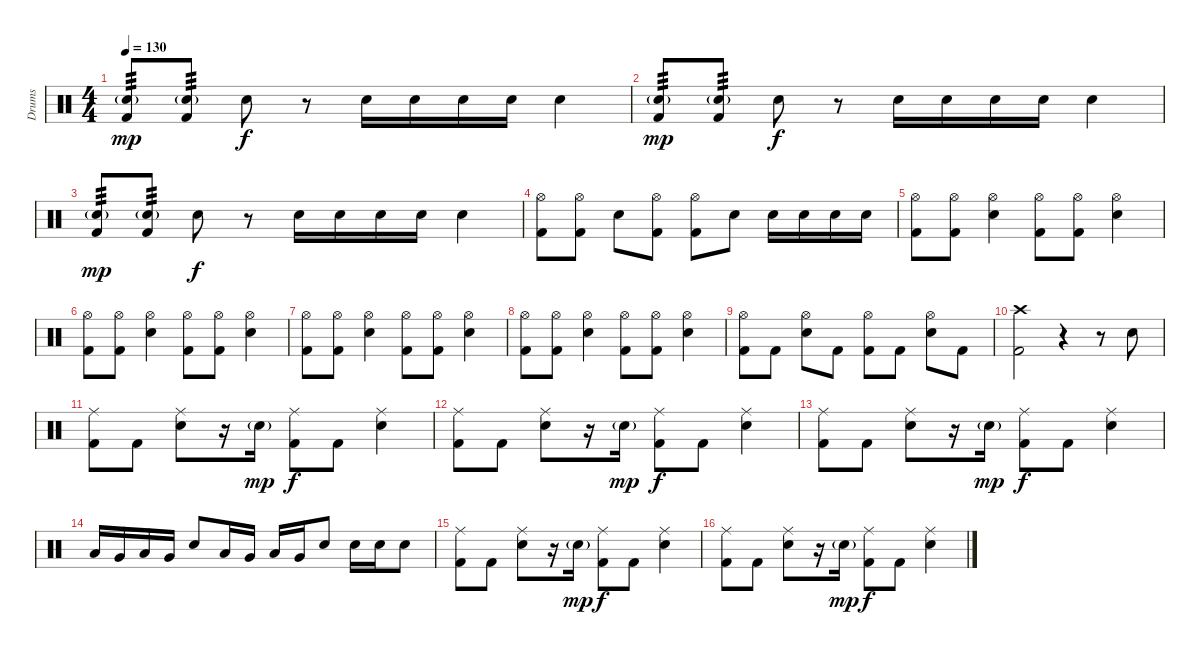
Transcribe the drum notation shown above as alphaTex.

\track ("Drums" "Drums") {instrument percussion}
\staff {score}
\articulation defaults
\ts (4 4)
\tempo 130
\clef neutral
\ks c
("Electric Snare (hit)"{g} "Kick (hit) 2").8{tp 3 dy mp} ("Electric Snare (hit)"{g} "Kick (hit) 2").8{tp 3} "Electric Snare (hit)".8{dy f} r.8 "Electric Snare (hit)".16 "Electric Snare (hit)".16 "Electric Snare (hit)".16 "Electric Snare (hit)".16 "Electric Snare (hit)".4 |
("Electric Snare (hit)"{g} "Kick (hit) 2").8{tp 3 dy mp} ("Electric Snare (hit)"{g} "Kick (hit) 2").8{tp 3} "Electric Snare (hit)".8{dy f} r.8 "Electric Snare (hit)".16 "Electric Snare (hit)".16 "Electric Snare (hit)".16 "Electric Snare (hit)".16 "Electric Snare (hit)".4 |
("Electric Snare (hit)"{g} "Kick (hit) 2").8{tp 3 dy mp} ("Electric Snare (hit)"{g} "Kick (hit) 2").8{tp 3} "Electric Snare (hit)".8{dy f} r.8 "Electric Snare (hit)".16 "Electric Snare (hit)".16 "Electric Snare (hit)".16 "Electric Snare (hit)".16 "Electric Snare (hit)".4 |
("Hi-Hat (open)" "Kick (hit) 2").8 ("Hi-Hat (open)" "Kick (hit) 2").8 "Electric Snare (hit)".8 ("Hi-Hat (open)" "Kick (hit) 2").8 ("Hi-Hat (open)" "Kick (hit) 2").8 "Electric Snare (hit)".8 "Electric Snare (hit)".16 "Electric Snare (hit)".16 "Electric Snare (hit)".16 "Electric Snare (hit)".16 |
("Hi-Hat (open)" "Kick (hit) 2").8 ("Hi-Hat (open)" "Kick (hit) 2").8 ("Hi-Hat (open)" "Electric Snare (hit)").4 ("Hi-Hat (open)" "Kick (hit) 2").8 ("Hi-Hat (open)" "Kick (hit) 2").8 ("Hi-Hat (open)" "Electric Snare (hit)").4 |
("Hi-Hat (open)" "Kick (hit) 2").8 ("Hi-Hat (open)" "Kick (hit) 2").8 ("Hi-Hat (open)" "Electric Snare (hit)").4 ("Hi-Hat (open)" "Kick (hit) 2").8 ("Hi-Hat (open)" "Kick (hit) 2").8 ("Hi-Hat (open)" "Electric Snare (hit)").4 |
("Hi-Hat (open)" "Kick (hit) 2").8 ("Hi-Hat (open)" "Kick (hit) 2").8 ("Hi-Hat (open)" "Electric Snare (hit)").4 ("Hi-Hat (open)" "Kick (hit) 2").8 ("Hi-Hat (open)" "Kick (hit) 2").8 ("Hi-Hat (open)" "Electric Snare (hit)").4 |
("Hi-Hat (open)" "Kick (hit) 2").8 ("Hi-Hat (open)" "Kick (hit) 2").8 ("Hi-Hat (open)" "Electric Snare (hit)").4 ("Hi-Hat (open)" "Kick (hit) 2").8 ("Hi-Hat (open)" "Kick (hit) 2").8 ("Hi-Hat (open)" "Electric Snare (hit)").4 |
("Hi-Hat (open)" "Kick (hit) 2").8 "Kick (hit) 2".8 ("Hi-Hat (open)" "Electric Snare (hit)").8 "Kick (hit) 2".8 ("Hi-Hat (open)" "Kick (hit) 2").8 "Kick (hit) 2".8 ("Hi-Hat (open)" "Electric Snare (hit)").8 "Kick (hit) 2".8 |
("Crash high (hit)" "Kick (hit) 2").2 r.4 r.8 "Electric Snare (hit)".8 |
("Ride (middle)" "Kick (hit) 2").8 "Kick (hit) 2".8 ("Ride (middle)" "Electric Snare (hit)").8 r.16 "Electric Snare (hit)"{g}.16{dy mp} ("Ride (middle)" "Kick (hit) 2").8{dy f} "Kick (hit) 2".8 ("Ride (middle)" "Electric Snare (hit)").4 |
("Ride (middle)" "Kick (hit) 2").8 "Kick (hit) 2".8 ("Ride (middle)" "Electric Snare (hit)").8 r.16 "Electric Snare (hit)"{g}.16{dy mp} ("Ride (middle)" "Kick (hit) 2").8{dy f} "Kick (hit) 2".8 ("Ride (middle)" "Electric Snare (hit)").4 |
("Ride (middle)" "Kick (hit) 2").8 "Kick (hit) 2".8 ("Ride (middle)" "Electric Snare (hit)").8 r.16 "Electric Snare (hit)"{g}.16{dy mp} ("Ride (middle)" "Kick (hit) 2").8{dy f} "Kick (hit) 2".8 ("Ride (middle)" "Electric Snare (hit)").4 |
"Low Tom (hit)".16 "Very Low Tom (hit)".16 "Low Tom (hit)".16 "Very Low Tom (hit)".16 "Electric Snare (hit)".8 "Low Tom (hit)".16 "Very Low Tom (hit)".16 "Low Tom (hit)".16 "Very Low Tom (hit)".16 "Electric Snare (hit)".8 "Electric Snare (hit)".16 "Electric Snare (hit)".16 "Electric Snare (hit)".8 |
("Ride (middle)" "Kick (hit) 2").8 "Kick (hit) 2".8 ("Ride (middle)" "Electric Snare (hit)").8 r.16 "Electric Snare (hit)"{g}.16{dy mp} ("Ride (middle)" "Kick (hit) 2").8{dy f} "Kick (hit) 2".8 ("Ride (middle)" "Electric Snare (hit)").4 |
("Ride (middle)" "Kick (hit) 2").8 "Kick (hit) 2".8 ("Ride (middle)" "Electric Snare (hit)").8 r.16 "Electric Snare (hit)"{g}.16{dy mp} ("Ride (middle)" "Kick (hit) 2").8{dy f} "Kick (hit) 2".8 ("Ride (middle)" "Electric Snare (hit)").4
